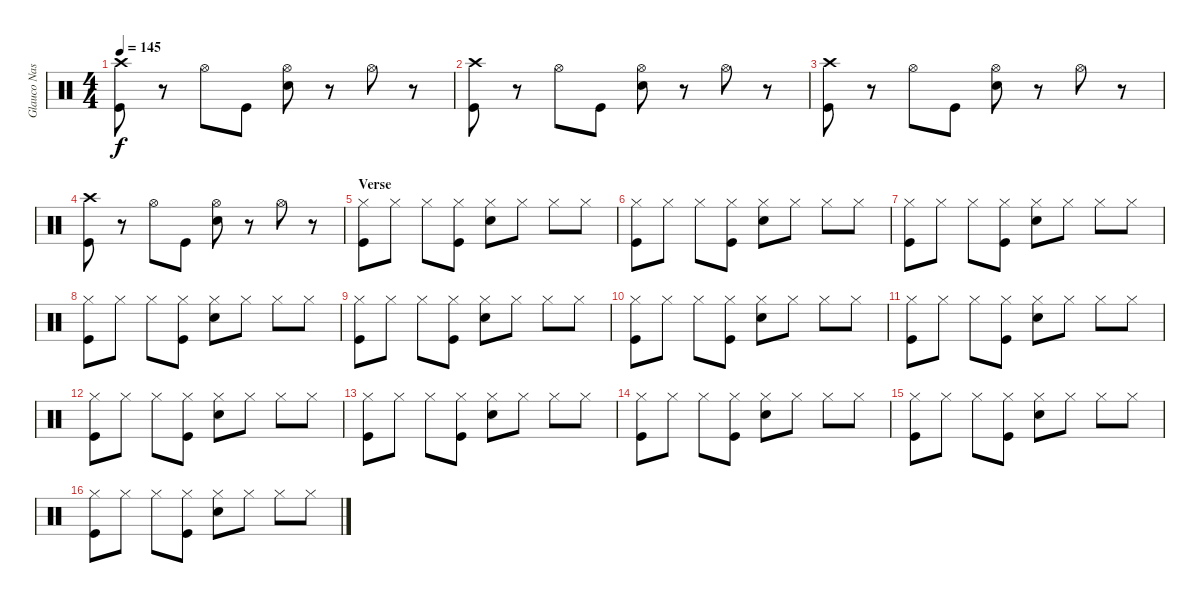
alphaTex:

\track ("Glauco Nastácia" "Glauco Nas") {instrument percussion}
\staff {score}
\articulation defaults
\ts (4 4)
\tempo 145
\clef neutral
\ks c
("Crash high (hit)" "Kick (hit)").8{dy f} r.8 "Hi-Hat (open)".8 "Kick (hit)".8 ("Hi-Hat (open)" "Electric Snare (hit)").8 r.8 "Hi-Hat (open)".8 r.8 |
("Crash high (hit)" "Kick (hit)").8 r.8 "Hi-Hat (open)".8 "Kick (hit)".8 ("Hi-Hat (open)" "Electric Snare (hit)").8 r.8 "Hi-Hat (open)".8 r.8 |
("Crash high (hit)" "Kick (hit)").8 r.8 "Hi-Hat (open)".8 "Kick (hit)".8 ("Hi-Hat (open)" "Electric Snare (hit)").8 r.8 "Hi-Hat (open)".8 r.8 |
("Crash high (hit)" "Kick (hit)").8 r.8 "Hi-Hat (open)".8 "Kick (hit)".8 ("Hi-Hat (open)" "Electric Snare (hit)").8 r.8 "Hi-Hat (open)".8 r.8 |
\section ("" "Verse")
("Hi-Hat (closed)" "Kick (hit)").8 "Hi-Hat (closed)".8 "Hi-Hat (closed)".8 ("Hi-Hat (closed)" "Kick (hit)").8 ("Hi-Hat (closed)" "Electric Snare (hit)").8 "Hi-Hat (closed)".8 "Hi-Hat (closed)".8 "Hi-Hat (closed)".8 |
("Hi-Hat (closed)" "Kick (hit)").8 "Hi-Hat (closed)".8 "Hi-Hat (closed)".8 ("Hi-Hat (closed)" "Kick (hit)").8 ("Hi-Hat (closed)" "Electric Snare (hit)").8 "Hi-Hat (closed)".8 "Hi-Hat (closed)".8 "Hi-Hat (closed)".8 |
("Hi-Hat (closed)" "Kick (hit)").8 "Hi-Hat (closed)".8 "Hi-Hat (closed)".8 ("Hi-Hat (closed)" "Kick (hit)").8 ("Hi-Hat (closed)" "Electric Snare (hit)").8 "Hi-Hat (closed)".8 "Hi-Hat (closed)".8 "Hi-Hat (closed)".8 |
("Hi-Hat (closed)" "Kick (hit)").8 "Hi-Hat (closed)".8 "Hi-Hat (closed)".8 ("Hi-Hat (closed)" "Kick (hit)").8 ("Hi-Hat (closed)" "Electric Snare (hit)").8 "Hi-Hat (closed)".8 "Hi-Hat (closed)".8 "Hi-Hat (closed)".8 |
("Hi-Hat (closed)" "Kick (hit)").8 "Hi-Hat (closed)".8 "Hi-Hat (closed)".8 ("Hi-Hat (closed)" "Kick (hit)").8 ("Hi-Hat (closed)" "Electric Snare (hit)").8 "Hi-Hat (closed)".8 "Hi-Hat (closed)".8 "Hi-Hat (closed)".8 |
("Hi-Hat (closed)" "Kick (hit)").8 "Hi-Hat (closed)".8 "Hi-Hat (closed)".8 ("Hi-Hat (closed)" "Kick (hit)").8 ("Hi-Hat (closed)" "Electric Snare (hit)").8 "Hi-Hat (closed)".8 "Hi-Hat (closed)".8 "Hi-Hat (closed)".8 |
("Hi-Hat (closed)" "Kick (hit)").8 "Hi-Hat (closed)".8 "Hi-Hat (closed)".8 ("Hi-Hat (closed)" "Kick (hit)").8 ("Hi-Hat (closed)" "Electric Snare (hit)").8 "Hi-Hat (closed)".8 "Hi-Hat (closed)".8 "Hi-Hat (closed)".8 |
("Hi-Hat (closed)" "Kick (hit)").8 "Hi-Hat (closed)".8 "Hi-Hat (closed)".8 ("Hi-Hat (closed)" "Kick (hit)").8 ("Hi-Hat (closed)" "Electric Snare (hit)").8 "Hi-Hat (closed)".8 "Hi-Hat (closed)".8 "Hi-Hat (closed)".8 |
("Hi-Hat (closed)" "Kick (hit)").8 "Hi-Hat (closed)".8 "Hi-Hat (closed)".8 ("Hi-Hat (closed)" "Kick (hit)").8 ("Hi-Hat (closed)" "Electric Snare (hit)").8 "Hi-Hat (closed)".8 "Hi-Hat (closed)".8 "Hi-Hat (closed)".8 |
("Hi-Hat (closed)" "Kick (hit)").8 "Hi-Hat (closed)".8 "Hi-Hat (closed)".8 ("Hi-Hat (closed)" "Kick (hit)").8 ("Hi-Hat (closed)" "Electric Snare (hit)").8 "Hi-Hat (closed)".8 "Hi-Hat (closed)".8 "Hi-Hat (closed)".8 |
("Hi-Hat (closed)" "Kick (hit)").8 "Hi-Hat (closed)".8 "Hi-Hat (closed)".8 ("Hi-Hat (closed)" "Kick (hit)").8 ("Hi-Hat (closed)" "Electric Snare (hit)").8 "Hi-Hat (closed)".8 "Hi-Hat (closed)".8 "Hi-Hat (closed)".8 |
("Hi-Hat (closed)" "Kick (hit)").8 "Hi-Hat (closed)".8 "Hi-Hat (closed)".8 ("Hi-Hat (closed)" "Kick (hit)").8 ("Hi-Hat (closed)" "Electric Snare (hit)").8 "Hi-Hat (closed)".8 "Hi-Hat (closed)".8 "Hi-Hat (closed)".8
